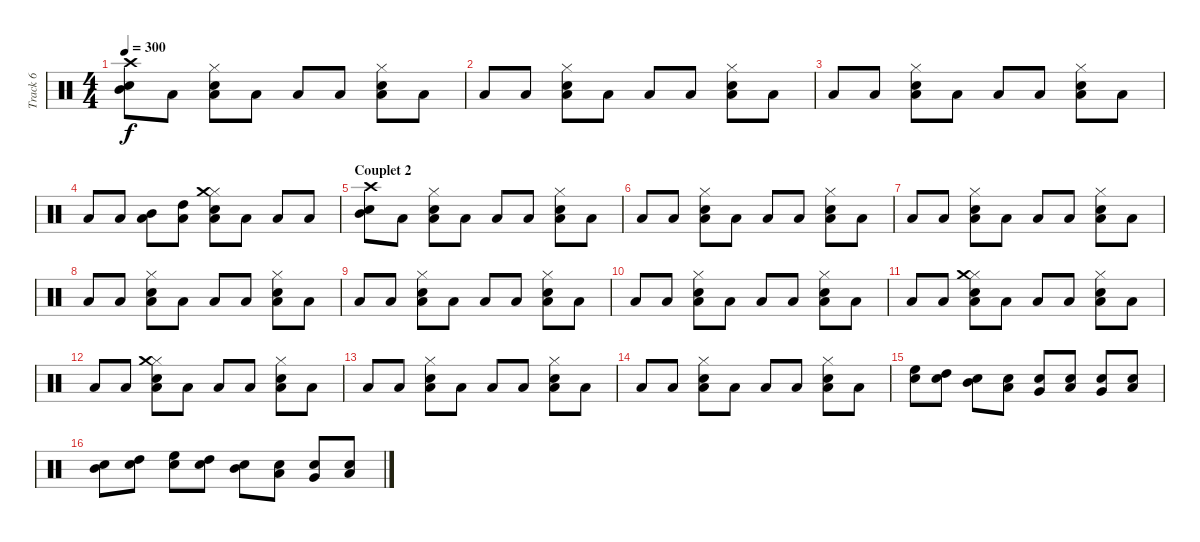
\track ("Track 6" "Track 6") {instrument percussion}
\staff {score}
\articulation defaults
\ts (4 4)
\tempo 300
\clef neutral
\ks c
("Snare (hit) 2" "Mid Tom (hit)" "Crash high (hit)").8{dy f} "Low Floor Tom (hit)".8 ("Electric Snare (hit)" "Low Tom (hit)" "Hi-Hat (closed)").8 "Low Floor Tom (hit)".8 "Low Floor Tom (hit)".8 "Low Floor Tom (hit)".8 ("Electric Snare (hit)" "Low Tom (hit)" "Hi-Hat (closed)").8 "Low Floor Tom (hit)".8 |
"Low Floor Tom (hit)".8 "Low Floor Tom (hit)".8 ("Electric Snare (hit)" "Low Tom (hit)" "Hi-Hat (closed)").8 "Low Floor Tom (hit)".8 "Low Floor Tom (hit)".8 "Low Floor Tom (hit)".8 ("Electric Snare (hit)" "Low Tom (hit)" "Hi-Hat (closed)").8 "Low Floor Tom (hit)".8 |
"Low Floor Tom (hit)".8 "Low Floor Tom (hit)".8 ("Electric Snare (hit)" "Low Tom (hit)" "Hi-Hat (closed)").8 "Low Floor Tom (hit)".8 "Low Floor Tom (hit)".8 "Low Floor Tom (hit)".8 ("Electric Snare (hit)" "Low Tom (hit)" "Hi-Hat (closed)").8 "Low Floor Tom (hit)".8 |
"Low Floor Tom (hit)".8 "Low Floor Tom (hit)".8 ("Low Floor Tom (hit)" "Mid Tom (hit)").8 ("Low Floor Tom (hit)" "High Tom (hit)").8 ("Electric Snare (hit)" "Low Tom (hit)" "Hi-Hat (closed)" "Crash medium (hit)").8 "Low Floor Tom (hit)".8 "Low Floor Tom (hit)".8 "Low Floor Tom (hit)".8 |
\section ("" "Couplet 2")
("Snare (hit) 2" "Mid Tom (hit)" "Crash high (hit)").8 "Low Floor Tom (hit)".8 ("Electric Snare (hit)" "Low Tom (hit)" "Hi-Hat (closed)").8 "Low Floor Tom (hit)".8 "Low Floor Tom (hit)".8 "Low Floor Tom (hit)".8 ("Electric Snare (hit)" "Low Tom (hit)" "Hi-Hat (closed)").8 "Low Floor Tom (hit)".8 |
"Low Floor Tom (hit)".8 "Low Floor Tom (hit)".8 ("Electric Snare (hit)" "Low Tom (hit)" "Hi-Hat (closed)").8 "Low Floor Tom (hit)".8 "Low Floor Tom (hit)".8 "Low Floor Tom (hit)".8 ("Electric Snare (hit)" "Low Tom (hit)" "Hi-Hat (closed)").8 "Low Floor Tom (hit)".8 |
"Low Floor Tom (hit)".8 "Low Floor Tom (hit)".8 ("Electric Snare (hit)" "Low Tom (hit)" "Hi-Hat (closed)").8 "Low Floor Tom (hit)".8 "Low Floor Tom (hit)".8 "Low Floor Tom (hit)".8 ("Electric Snare (hit)" "Low Tom (hit)" "Hi-Hat (closed)").8 "Low Floor Tom (hit)".8 |
"Low Floor Tom (hit)".8 "Low Floor Tom (hit)".8 ("Electric Snare (hit)" "Low Tom (hit)" "Hi-Hat (closed)").8 "Low Floor Tom (hit)".8 "Low Floor Tom (hit)".8 "Low Floor Tom (hit)".8 ("Electric Snare (hit)" "Low Tom (hit)" "Hi-Hat (closed)").8 "Low Floor Tom (hit)".8 |
"Low Floor Tom (hit)".8 "Low Floor Tom (hit)".8 ("Electric Snare (hit)" "Low Tom (hit)" "Hi-Hat (closed)").8 "Low Floor Tom (hit)".8 "Low Floor Tom (hit)".8 "Low Floor Tom (hit)".8 ("Electric Snare (hit)" "Low Tom (hit)" "Hi-Hat (closed)").8 "Low Floor Tom (hit)".8 |
"Low Floor Tom (hit)".8 "Low Floor Tom (hit)".8 ("Electric Snare (hit)" "Low Tom (hit)" "Hi-Hat (closed)").8 "Low Floor Tom (hit)".8 "Low Floor Tom (hit)".8 "Low Floor Tom (hit)".8 ("Electric Snare (hit)" "Low Tom (hit)" "Hi-Hat (closed)").8 "Low Floor Tom (hit)".8 |
"Low Floor Tom (hit)".8 "Low Floor Tom (hit)".8 ("Electric Snare (hit)" "Low Tom (hit)" "Hi-Hat (closed)" "Crash medium (hit)").8 "Low Floor Tom (hit)".8 "Low Floor Tom (hit)".8 "Low Floor Tom (hit)".8 ("Electric Snare (hit)" "Low Tom (hit)" "Hi-Hat (closed)").8 "Low Floor Tom (hit)".8 |
"Low Floor Tom (hit)".8 "Low Floor Tom (hit)".8 ("Electric Snare (hit)" "Low Tom (hit)" "Hi-Hat (closed)" "Crash medium (hit)").8 "Low Floor Tom (hit)".8 "Low Floor Tom (hit)".8 "Low Floor Tom (hit)".8 ("Electric Snare (hit)" "Low Tom (hit)" "Hi-Hat (closed)").8 "Low Floor Tom (hit)".8 |
"Low Floor Tom (hit)".8 "Low Floor Tom (hit)".8 ("Electric Snare (hit)" "Low Tom (hit)" "Hi-Hat (closed)").8 "Low Floor Tom (hit)".8 "Low Floor Tom (hit)".8 "Low Floor Tom (hit)".8 ("Electric Snare (hit)" "Low Tom (hit)" "Hi-Hat (closed)").8 "Low Floor Tom (hit)".8 |
"Low Floor Tom (hit)".8 "Low Floor Tom (hit)".8 ("Electric Snare (hit)" "Low Tom (hit)" "Hi-Hat (closed)").8 "Low Floor Tom (hit)".8 "Low Floor Tom (hit)".8 "Low Floor Tom (hit)".8 ("Electric Snare (hit)" "Low Tom (hit)" "Hi-Hat (closed)").8 "Low Floor Tom (hit)".8 |
("High Floor Tom (hit)" "Electric Snare (hit)").8 ("High Tom (hit)" "Electric Snare (hit)").8 ("Mid Tom (hit)" "Electric Snare (hit)").8 ("Low Tom (hit)" "Electric Snare (hit)").8 ("Very Low Tom (hit)" "Electric Snare (hit)").8 ("Low Floor Tom (hit)" "Electric Snare (hit)").8 ("Very Low Tom (hit)" "Electric Snare (hit)").8 ("Low Tom (hit)" "Electric Snare (hit)").8 |
("Mid Tom (hit)" "Electric Snare (hit)").8 ("High Tom (hit)" "Electric Snare (hit)").8 ("High Floor Tom (hit)" "Electric Snare (hit)").8 ("High Tom (hit)" "Electric Snare (hit)").8 ("Mid Tom (hit)" "Snare (hit) 2").8 ("Low Tom (hit)" "Snare (hit) 2").8 ("Very Low Tom (hit)" "Snare (hit) 2").8 ("Low Floor Tom (hit)" "Snare (hit) 2").8
